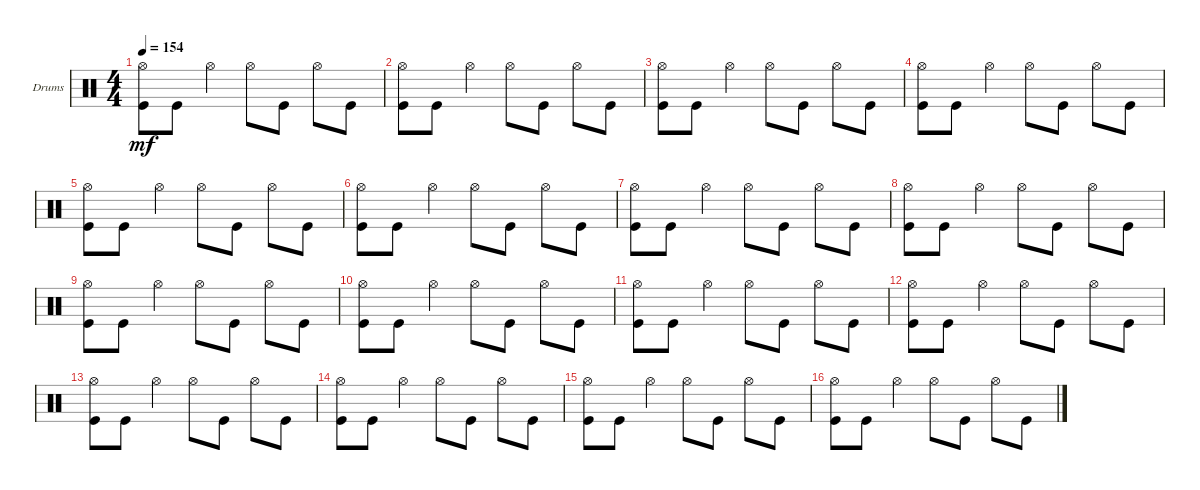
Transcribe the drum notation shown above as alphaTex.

\defaultSystemsLayout 4
\bracketExtendMode groupsimilarinstruments
\firstSystemTrackNameOrientation horizontal
\otherSystemsTrackNameOrientation horizontal
\track ("Drumkit" "Drums") {instrument percussion}
\staff {score}
\articulation defaults
\ts (4 4)
\tempo 154
\clef neutral
\ks c
("Kick (hit)" "Hi-Hat (open)").8{dy mf} "Kick (hit)".8 "Hi-Hat (open)".4 "Hi-Hat (open)".8 "Kick (hit)".8 "Hi-Hat (open)".8 "Kick (hit)".8 |
("Kick (hit)" "Hi-Hat (open)").8 "Kick (hit)".8 "Hi-Hat (open)".4 "Hi-Hat (open)".8 "Kick (hit)".8 "Hi-Hat (open)".8 "Kick (hit)".8 |
("Kick (hit)" "Hi-Hat (open)").8 "Kick (hit)".8 "Hi-Hat (open)".4 "Hi-Hat (open)".8 "Kick (hit)".8 "Hi-Hat (open)".8 "Kick (hit)".8 |
("Kick (hit)" "Hi-Hat (open)").8 "Kick (hit)".8 "Hi-Hat (open)".4 "Hi-Hat (open)".8 "Kick (hit)".8 "Hi-Hat (open)".8 "Kick (hit)".8 |
("Kick (hit)" "Hi-Hat (open)").8 "Kick (hit)".8 "Hi-Hat (open)".4 "Hi-Hat (open)".8 "Kick (hit)".8 "Hi-Hat (open)".8 "Kick (hit)".8 |
("Kick (hit)" "Hi-Hat (open)").8 "Kick (hit)".8 "Hi-Hat (open)".4 "Hi-Hat (open)".8 "Kick (hit)".8 "Hi-Hat (open)".8 "Kick (hit)".8 |
("Kick (hit)" "Hi-Hat (open)").8 "Kick (hit)".8 "Hi-Hat (open)".4 "Hi-Hat (open)".8 "Kick (hit)".8 "Hi-Hat (open)".8 "Kick (hit)".8 |
("Kick (hit)" "Hi-Hat (open)").8 "Kick (hit)".8 "Hi-Hat (open)".4 "Hi-Hat (open)".8 "Kick (hit)".8 "Hi-Hat (open)".8 "Kick (hit)".8 |
("Kick (hit)" "Hi-Hat (open)").8 "Kick (hit)".8 "Hi-Hat (open)".4 "Hi-Hat (open)".8 "Kick (hit)".8 "Hi-Hat (open)".8 "Kick (hit)".8 |
("Kick (hit)" "Hi-Hat (open)").8 "Kick (hit)".8 "Hi-Hat (open)".4 "Hi-Hat (open)".8 "Kick (hit)".8 "Hi-Hat (open)".8 "Kick (hit)".8 |
("Kick (hit)" "Hi-Hat (open)").8 "Kick (hit)".8 "Hi-Hat (open)".4 "Hi-Hat (open)".8 "Kick (hit)".8 "Hi-Hat (open)".8 "Kick (hit)".8 |
("Kick (hit)" "Hi-Hat (open)").8 "Kick (hit)".8 "Hi-Hat (open)".4 "Hi-Hat (open)".8 "Kick (hit)".8 "Hi-Hat (open)".8 "Kick (hit)".8 |
("Kick (hit)" "Hi-Hat (open)").8 "Kick (hit)".8 "Hi-Hat (open)".4 "Hi-Hat (open)".8 "Kick (hit)".8 "Hi-Hat (open)".8 "Kick (hit)".8 |
("Kick (hit)" "Hi-Hat (open)").8 "Kick (hit)".8 "Hi-Hat (open)".4 "Hi-Hat (open)".8 "Kick (hit)".8 "Hi-Hat (open)".8 "Kick (hit)".8 |
("Kick (hit)" "Hi-Hat (open)").8 "Kick (hit)".8 "Hi-Hat (open)".4 "Hi-Hat (open)".8 "Kick (hit)".8 "Hi-Hat (open)".8 "Kick (hit)".8 |
("Kick (hit)" "Hi-Hat (open)").8 "Kick (hit)".8 "Hi-Hat (open)".4 "Hi-Hat (open)".8 "Kick (hit)".8 "Hi-Hat (open)".8 "Kick (hit)".8
